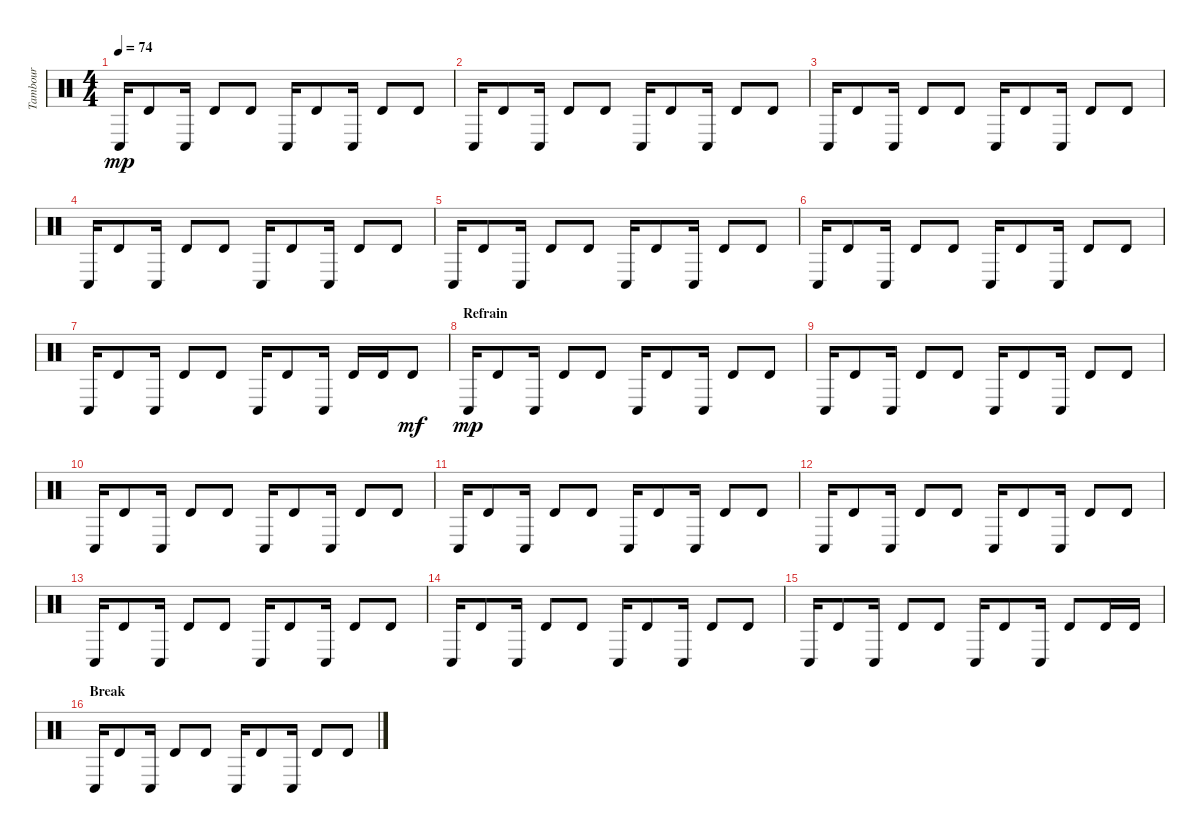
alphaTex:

\track ("Tambour" "Tambour") {instrument percussion}
\staff {score}
\articulation defaults
\ts (4 4)
\tempo 74
\clef neutral
\ks c "Conga low (hit)".16{dy mp} "Timbale high (hit)".8 "Conga low (hit)".16 "Timbale high (hit)".8 "Timbale high (hit)".8 "Conga low (hit)".16 "Timbale high (hit)".8 "Conga low (hit)".16 "Timbale high (hit)".8 "Timbale high (hit)".8
|
"Conga low (hit)".16 "Timbale high (hit)".8 "Conga low (hit)".16 "Timbale high (hit)".8 "Timbale high (hit)".8 "Conga low (hit)".16 "Timbale high (hit)".8 "Conga low (hit)".16 "Timbale high (hit)".8 "Timbale high (hit)".8 |
"Conga low (hit)".16 "Timbale high (hit)".8 "Conga low (hit)".16 "Timbale high (hit)".8 "Timbale high (hit)".8 "Conga low (hit)".16 "Timbale high (hit)".8 "Conga low (hit)".16 "Timbale high (hit)".8 "Timbale high (hit)".8 |
"Conga low (hit)".16 "Timbale high (hit)".8 "Conga low (hit)".16 "Timbale high (hit)".8 "Timbale high (hit)".8 "Conga low (hit)".16 "Timbale high (hit)".8 "Conga low (hit)".16 "Timbale high (hit)".8 "Timbale high (hit)".8 |
"Conga low (hit)".16 "Timbale high (hit)".8 "Conga low (hit)".16 "Timbale high (hit)".8 "Timbale high (hit)".8 "Conga low (hit)".16 "Timbale high (hit)".8 "Conga low (hit)".16 "Timbale high (hit)".8 "Timbale high (hit)".8 |
"Conga low (hit)".16 "Timbale high (hit)".8 "Conga low (hit)".16 "Timbale high (hit)".8 "Timbale high (hit)".8 "Conga low (hit)".16 "Timbale high (hit)".8 "Conga low (hit)".16 "Timbale high (hit)".8 "Timbale high (hit)".8 |
"Conga low (hit)".16 "Timbale high (hit)".8 "Conga low (hit)".16 "Timbale high (hit)".8 "Timbale high (hit)".8 "Conga low (hit)".16 "Timbale high (hit)".8 "Conga low (hit)".16 "Timbale high (hit)".16 "Timbale high (hit)".16 "Timbale high (hit)".8{dy mf} |
\section ("" "Refrain")
"Conga low (hit)".16{dy mp} "Timbale high (hit)".8 "Conga low (hit)".16 "Timbale high (hit)".8 "Timbale high (hit)".8 "Conga low (hit)".16 "Timbale high (hit)".8 "Conga low (hit)".16 "Timbale high (hit)".8 "Timbale high (hit)".8 |
"Conga low (hit)".16 "Timbale high (hit)".8 "Conga low (hit)".16 "Timbale high (hit)".8 "Timbale high (hit)".8 "Conga low (hit)".16 "Timbale high (hit)".8 "Conga low (hit)".16 "Timbale high (hit)".8 "Timbale high (hit)".8 |
"Conga low (hit)".16 "Timbale high (hit)".8 "Conga low (hit)".16 "Timbale high (hit)".8 "Timbale high (hit)".8 "Conga low (hit)".16 "Timbale high (hit)".8 "Conga low (hit)".16 "Timbale high (hit)".8 "Timbale high (hit)".8 |
"Conga low (hit)".16 "Timbale high (hit)".8 "Conga low (hit)".16 "Timbale high (hit)".8 "Timbale high (hit)".8 "Conga low (hit)".16 "Timbale high (hit)".8 "Conga low (hit)".16 "Timbale high (hit)".8 "Timbale high (hit)".8 |
"Conga low (hit)".16 "Timbale high (hit)".8 "Conga low (hit)".16 "Timbale high (hit)".8 "Timbale high (hit)".8 "Conga low (hit)".16 "Timbale high (hit)".8 "Conga low (hit)".16 "Timbale high (hit)".8 "Timbale high (hit)".8 |
"Conga low (hit)".16 "Timbale high (hit)".8 "Conga low (hit)".16 "Timbale high (hit)".8 "Timbale high (hit)".8 "Conga low (hit)".16 "Timbale high (hit)".8 "Conga low (hit)".16 "Timbale high (hit)".8 "Timbale high (hit)".8 |
"Conga low (hit)".16 "Timbale high (hit)".8 "Conga low (hit)".16 "Timbale high (hit)".8 "Timbale high (hit)".8 "Conga low (hit)".16 "Timbale high (hit)".8 "Conga low (hit)".16 "Timbale high (hit)".8 "Timbale high (hit)".8 |
"Conga low (hit)".16 "Timbale high (hit)".8 "Conga low (hit)".16 "Timbale high (hit)".8 "Timbale high (hit)".8 "Conga low (hit)".16 "Timbale high (hit)".8 "Conga low (hit)".16 "Timbale high (hit)".8 "Timbale high (hit)".16 "Timbale high (hit)".16 |
\section ("" "Break")
"Conga low (hit)".16 "Timbale high (hit)".8 "Conga low (hit)".16 "Timbale high (hit)".8 "Timbale high (hit)".8 "Conga low (hit)".16 "Timbale high (hit)".8 "Conga low (hit)".16 "Timbale high (hit)".8 "Timbale high (hit)".8
